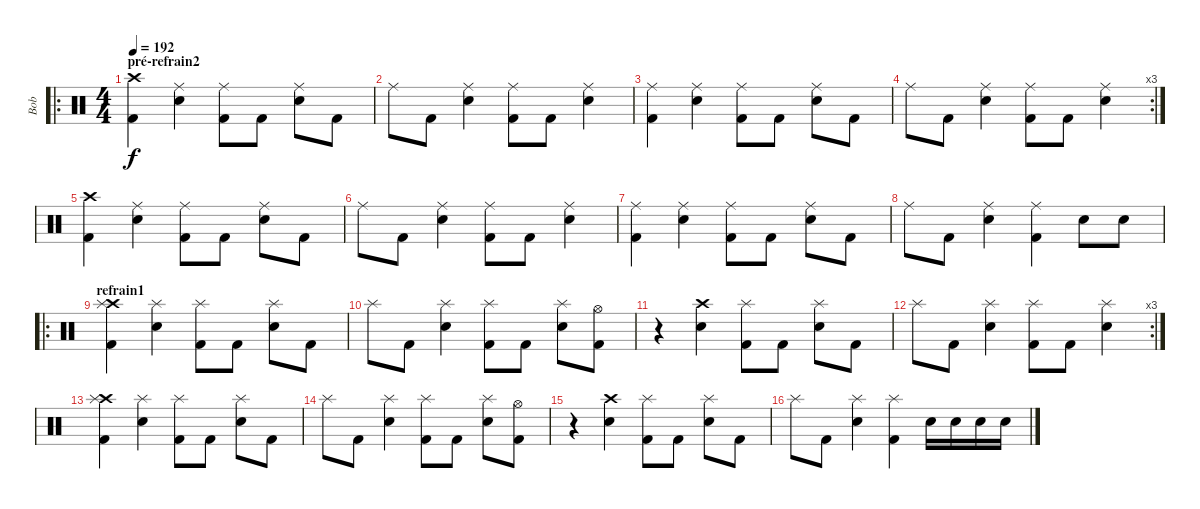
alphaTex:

\track ("Bob" "Bob") {instrument percussion}
\staff {score}
\articulation defaults
\ro
\ts (4 4)
\section ("" "pré-refrain2")
\tempo 192
\clef neutral
\ks c
("Crash high (hit)" "Kick (hit) 2").4{dy f} ("Ride (middle)" "Electric Snare (hit)").4 ("Ride (middle)" "Kick (hit) 2").8 "Kick (hit) 2".8 ("Ride (middle)" "Electric Snare (hit)").8 "Kick (hit) 2".8 |
"Ride (middle)".8 "Kick (hit) 2".8 ("Ride (middle)" "Electric Snare (hit)").4 ("Ride (middle)" "Kick (hit) 2").8 "Kick (hit) 2".8 ("Ride (middle)" "Electric Snare (hit)").4 |
("Ride (middle)" "Kick (hit) 2").4 ("Ride (middle)" "Electric Snare (hit)").4 ("Ride (middle)" "Kick (hit) 2").8 "Kick (hit) 2".8 ("Ride (middle)" "Electric Snare (hit)").8 "Kick (hit) 2".8 |
\rc 3 "Ride (middle)".8 "Kick (hit) 2".8
("Ride (middle)" "Electric Snare (hit)").4 ("Ride (middle)" "Kick (hit) 2").8 "Kick (hit) 2".8 ("Ride (middle)" "Electric Snare (hit)").4 |
("Crash high (hit)" "Kick (hit) 2").4 ("Ride (middle)" "Electric Snare (hit)").4 ("Ride (middle)" "Kick (hit) 2").8 "Kick (hit) 2".8 ("Ride (middle)" "Electric Snare (hit)").8 "Kick (hit) 2".8 |
"Ride (middle)".8 "Kick (hit) 2".8 ("Ride (middle)" "Electric Snare (hit)").4 ("Ride (middle)" "Kick (hit) 2").8 "Kick (hit) 2".8 ("Ride (middle)" "Electric Snare (hit)").4 |
("Ride (middle)" "Kick (hit) 2").4 ("Ride (middle)" "Electric Snare (hit)").4 ("Ride (middle)" "Kick (hit) 2").8 "Kick (hit) 2".8 ("Ride (middle)" "Electric Snare (hit)").8 "Kick (hit) 2".8 |
"Ride (middle)".8 "Kick (hit) 2".8 ("Ride (middle)" "Electric Snare (hit)").4 ("Ride (middle)" "Kick (hit) 2").4 "Electric Snare (hit)".8 "Electric Snare (hit)".8 |
\ro
\section ("" "refrain1")
("Crash high (hit)" "Splash (hit)" "Kick (hit) 2").4 ("Splash (hit)" "Electric Snare (hit)").4 ("Splash (hit)" "Kick (hit) 2").8 "Kick (hit) 2".8 ("Splash (hit)" "Electric Snare (hit)").8 "Kick (hit) 2".8 |
"Splash (hit)".8 "Kick (hit) 2".8 ("Splash (hit)" "Electric Snare (hit)").4 ("Splash (hit)" "Kick (hit) 2").8 "Kick (hit) 2".8 ("Splash (hit)" "Electric Snare (hit)").8 ("Hi-Hat (open)" "Kick (hit) 2").8 |
r.4 ("Crash high (hit)" "Electric Snare (hit)").4 ("Splash (hit)" "Kick (hit) 2").8 "Kick (hit) 2".8 ("Splash (hit)" "Electric Snare (hit)").8 "Kick (hit) 2".8 |
\rc 3 "Splash (hit)".8 "Kick (hit) 2".8
("Splash (hit)" "Electric Snare (hit)").4 ("Splash (hit)" "Kick (hit) 2").8 "Kick (hit) 2".8 ("Splash (hit)" "Electric Snare (hit)").4 |
("Crash high (hit)" "Splash (hit)" "Kick (hit) 2").4 ("Splash (hit)" "Electric Snare (hit)").4 ("Splash (hit)" "Kick (hit) 2").8 "Kick (hit) 2".8 ("Splash (hit)" "Electric Snare (hit)").8 "Kick (hit) 2".8 |
"Splash (hit)".8 "Kick (hit) 2".8 ("Splash (hit)" "Electric Snare (hit)").4 ("Splash (hit)" "Kick (hit) 2").8 "Kick (hit) 2".8 ("Splash (hit)" "Electric Snare (hit)").8 ("Hi-Hat (open)" "Kick (hit) 2").8 |
r.4 ("Crash high (hit)" "Electric Snare (hit)").4 ("Splash (hit)" "Kick (hit) 2").8 "Kick (hit) 2".8 ("Splash (hit)" "Electric Snare (hit)").8 "Kick (hit) 2".8 |
"Splash (hit)".8 "Kick (hit) 2".8 ("Splash (hit)" "Electric Snare (hit)").4 ("Splash (hit)" "Kick (hit) 2").4 "Electric Snare (hit)".16 "Electric Snare (hit)".16 "Electric Snare (hit)".16 "Electric Snare (hit)".16
